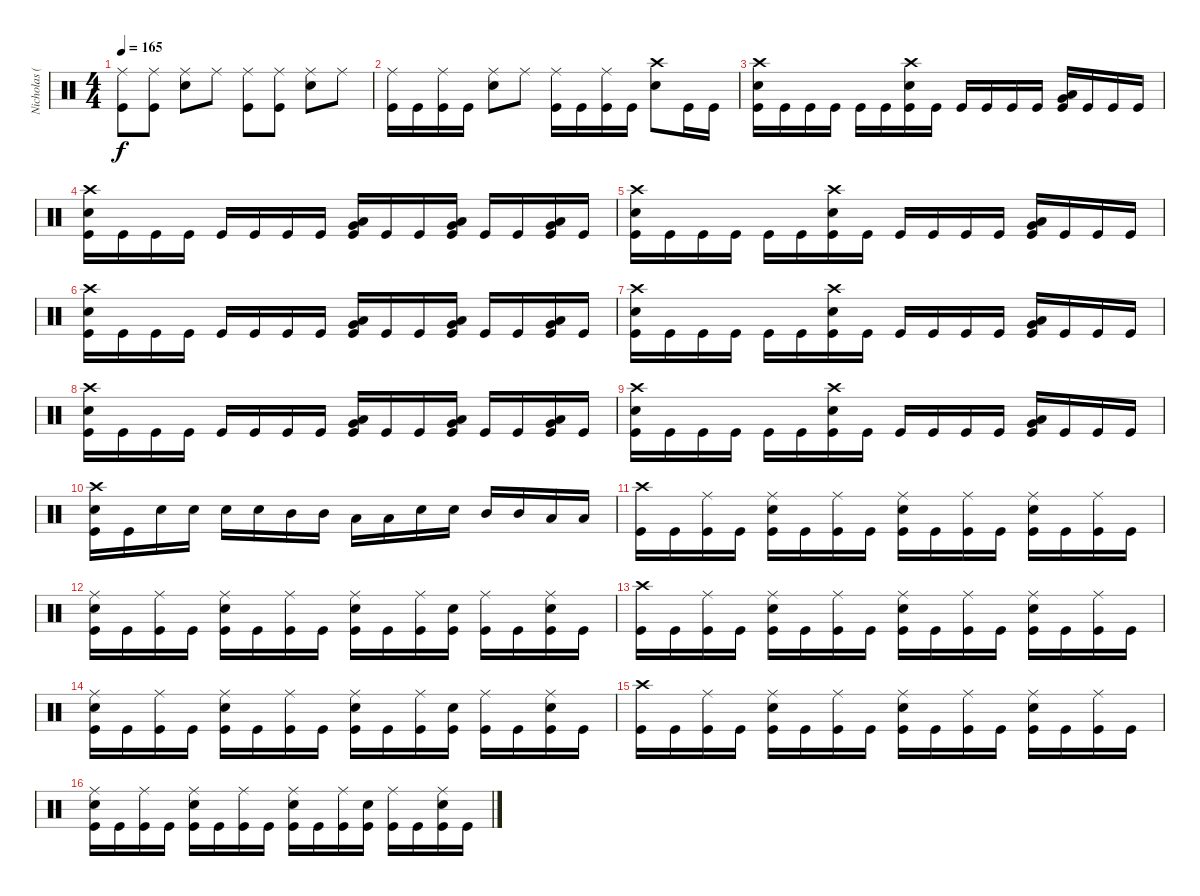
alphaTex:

\track ("Nicholas (Drums)" "Nicholas (") {instrument percussion}
\staff {score}
\articulation defaults
\ts (4 4)
\tempo 165
\clef neutral
\ks c
("Ride (middle)" "Kick (hit)").8{dy f} ("Ride (middle)" "Kick (hit)").8 ("Ride (middle)" "Electric Snare (hit)").8 "Ride (middle)".8 ("Ride (middle)" "Kick (hit)").8 ("Ride (middle)" "Kick (hit)").8 ("Ride (middle)" "Electric Snare (hit)").8 "Ride (middle)".8 |
("Ride (middle)" "Kick (hit)").16 "Kick (hit)".16 ("Ride (middle)" "Kick (hit)").16 "Kick (hit)".16 ("Ride (middle)" "Electric Snare (hit)").8 "Ride (middle)".8 ("Ride (middle)" "Kick (hit)").16 "Kick (hit)".16 ("Ride (middle)" "Kick (hit)").16 "Kick (hit)".16 ("Crash high (hit)" "Electric Snare (hit)").8 "Kick (hit)".16 "Kick (hit)".16 |
("Crash high (hit)" "Electric Snare (hit)" "Kick (hit)").16 "Kick (hit)".16 "Kick (hit)".16 "Kick (hit)".16 "Kick (hit)".16 "Kick (hit)".16 ("Crash high (hit)" "Electric Snare (hit)" "Kick (hit)").16 "Kick (hit)".16 "Kick (hit)".16 "Kick (hit)".16 "Kick (hit)".16 "Kick (hit)".16 ("Low Tom (hit)" "Very Low Tom (hit)" "Kick (hit)").16 "Kick (hit)".16 "Kick (hit)".16 "Kick (hit)".16 |
("Crash high (hit)" "Electric Snare (hit)" "Kick (hit)").16 "Kick (hit)".16 "Kick (hit)".16 "Kick (hit)".16 "Kick (hit)".16 "Kick (hit)".16 "Kick (hit)".16 "Kick (hit)".16 ("Low Tom (hit)" "Very Low Tom (hit)" "Kick (hit)").16 "Kick (hit)".16 "Kick (hit)".16 ("Low Tom (hit)" "Very Low Tom (hit)" "Kick (hit)").16 "Kick (hit)".16 "Kick (hit)".16 ("Low Tom (hit)" "Very Low Tom (hit)" "Kick (hit)").16 "Kick (hit)".16 |
("Crash high (hit)" "Electric Snare (hit)" "Kick (hit)").16 "Kick (hit)".16 "Kick (hit)".16 "Kick (hit)".16 "Kick (hit)".16 "Kick (hit)".16 ("Crash high (hit)" "Electric Snare (hit)" "Kick (hit)").16 "Kick (hit)".16 "Kick (hit)".16 "Kick (hit)".16 "Kick (hit)".16 "Kick (hit)".16 ("Low Tom (hit)" "Very Low Tom (hit)" "Kick (hit)").16 "Kick (hit)".16 "Kick (hit)".16 "Kick (hit)".16 |
("Crash high (hit)" "Electric Snare (hit)" "Kick (hit)").16 "Kick (hit)".16 "Kick (hit)".16 "Kick (hit)".16 "Kick (hit)".16 "Kick (hit)".16 "Kick (hit)".16 "Kick (hit)".16 ("Low Tom (hit)" "Very Low Tom (hit)" "Kick (hit)").16 "Kick (hit)".16 "Kick (hit)".16 ("Low Tom (hit)" "Very Low Tom (hit)" "Kick (hit)").16 "Kick (hit)".16 "Kick (hit)".16 ("Low Tom (hit)" "Very Low Tom (hit)" "Kick (hit)").16 "Kick (hit)".16 |
("Crash high (hit)" "Electric Snare (hit)" "Kick (hit)").16 "Kick (hit)".16 "Kick (hit)".16 "Kick (hit)".16 "Kick (hit)".16 "Kick (hit)".16 ("Crash high (hit)" "Electric Snare (hit)" "Kick (hit)").16 "Kick (hit)".16 "Kick (hit)".16 "Kick (hit)".16 "Kick (hit)".16 "Kick (hit)".16 ("Low Tom (hit)" "Very Low Tom (hit)" "Kick (hit)").16 "Kick (hit)".16 "Kick (hit)".16 "Kick (hit)".16 |
("Crash high (hit)" "Electric Snare (hit)" "Kick (hit)").16 "Kick (hit)".16 "Kick (hit)".16 "Kick (hit)".16 "Kick (hit)".16 "Kick (hit)".16 "Kick (hit)".16 "Kick (hit)".16 ("Low Tom (hit)" "Very Low Tom (hit)" "Kick (hit)").16 "Kick (hit)".16 "Kick (hit)".16 ("Low Tom (hit)" "Very Low Tom (hit)" "Kick (hit)").16 "Kick (hit)".16 "Kick (hit)".16 ("Low Tom (hit)" "Very Low Tom (hit)" "Kick (hit)").16 "Kick (hit)".16 |
("Crash high (hit)" "Electric Snare (hit)" "Kick (hit)").16 "Kick (hit)".16 "Kick (hit)".16 "Kick (hit)".16 "Kick (hit)".16 "Kick (hit)".16 ("Crash high (hit)" "Electric Snare (hit)" "Kick (hit)").16 "Kick (hit)".16 "Kick (hit)".16 "Kick (hit)".16 "Kick (hit)".16 "Kick (hit)".16 ("Low Tom (hit)" "Very Low Tom (hit)" "Kick (hit)").16 "Kick (hit)".16 "Kick (hit)".16 "Kick (hit)".16 |
("Crash high (hit)" "Electric Snare (hit)" "Kick (hit)").16 "Kick (hit)".16 "Electric Snare (hit)".16 "Electric Snare (hit)".16 "Electric Snare (hit)".16 "Electric Snare (hit)".16 "Mid Tom (hit)".16 "Mid Tom (hit)".16 "Low Tom (hit)".16 "Low Tom (hit)".16 "Electric Snare (hit)".16 "Electric Snare (hit)".16 "Mid Tom (hit)".16 "Mid Tom (hit)".16 "Low Tom (hit)".16 "Low Tom (hit)".16 |
("Crash high (hit)" "Kick (hit)").16 "Kick (hit)".16 ("Ride (middle)" "Kick (hit)").16 "Kick (hit)".16 ("Ride (middle)" "Electric Snare (hit)" "Kick (hit)").16 "Kick (hit)".16 ("Ride (middle)" "Kick (hit)").16 "Kick (hit)".16 ("Ride (middle)" "Electric Snare (hit)" "Kick (hit)").16 "Kick (hit)".16 ("Ride (middle)" "Kick (hit)").16 "Kick (hit)".16 ("Ride (middle)" "Electric Snare (hit)" "Kick (hit)").16 "Kick (hit)".16 ("Ride (middle)" "Kick (hit)").16 "Kick (hit)".16 |
("Ride (middle)" "Electric Snare (hit)" "Kick (hit)").16 "Kick (hit)".16 ("Ride (middle)" "Kick (hit)").16 "Kick (hit)".16 ("Ride (middle)" "Electric Snare (hit)" "Kick (hit)").16 "Kick (hit)".16 ("Ride (middle)" "Kick (hit)").16 "Kick (hit)".16 ("Ride (middle)" "Electric Snare (hit)" "Kick (hit)").16 "Kick (hit)".16 ("Ride (middle)" "Kick (hit)").16 ("Electric Snare (hit)" "Kick (hit)").16 ("Ride (middle)" "Kick (hit)").16 "Kick (hit)".16 ("Ride (middle)" "Electric Snare (hit)" "Kick (hit)").16 "Kick (hit)".16 |
("Crash high (hit)" "Kick (hit)").16 "Kick (hit)".16 ("Ride (middle)" "Kick (hit)").16 "Kick (hit)".16 ("Ride (middle)" "Electric Snare (hit)" "Kick (hit)").16 "Kick (hit)".16 ("Ride (middle)" "Kick (hit)").16 "Kick (hit)".16 ("Ride (middle)" "Electric Snare (hit)" "Kick (hit)").16 "Kick (hit)".16 ("Ride (middle)" "Kick (hit)").16 "Kick (hit)".16 ("Ride (middle)" "Electric Snare (hit)" "Kick (hit)").16 "Kick (hit)".16 ("Ride (middle)" "Kick (hit)").16 "Kick (hit)".16 |
("Ride (middle)" "Electric Snare (hit)" "Kick (hit)").16 "Kick (hit)".16 ("Ride (middle)" "Kick (hit)").16 "Kick (hit)".16 ("Ride (middle)" "Electric Snare (hit)" "Kick (hit)").16 "Kick (hit)".16 ("Ride (middle)" "Kick (hit)").16 "Kick (hit)".16 ("Ride (middle)" "Electric Snare (hit)" "Kick (hit)").16 "Kick (hit)".16 ("Ride (middle)" "Kick (hit)").16 ("Electric Snare (hit)" "Kick (hit)").16 ("Ride (middle)" "Kick (hit)").16 "Kick (hit)".16 ("Ride (middle)" "Electric Snare (hit)" "Kick (hit)").16 "Kick (hit)".16 |
("Crash high (hit)" "Kick (hit)").16 "Kick (hit)".16 ("Ride (middle)" "Kick (hit)").16 "Kick (hit)".16 ("Ride (middle)" "Electric Snare (hit)" "Kick (hit)").16 "Kick (hit)".16 ("Ride (middle)" "Kick (hit)").16 "Kick (hit)".16 ("Ride (middle)" "Electric Snare (hit)" "Kick (hit)").16 "Kick (hit)".16 ("Ride (middle)" "Kick (hit)").16 "Kick (hit)".16 ("Ride (middle)" "Electric Snare (hit)" "Kick (hit)").16 "Kick (hit)".16 ("Ride (middle)" "Kick (hit)").16 "Kick (hit)".16 |
("Ride (middle)" "Electric Snare (hit)" "Kick (hit)").16 "Kick (hit)".16 ("Ride (middle)" "Kick (hit)").16 "Kick (hit)".16 ("Ride (middle)" "Electric Snare (hit)" "Kick (hit)").16 "Kick (hit)".16 ("Ride (middle)" "Kick (hit)").16 "Kick (hit)".16 ("Ride (middle)" "Electric Snare (hit)" "Kick (hit)").16 "Kick (hit)".16 ("Ride (middle)" "Kick (hit)").16 ("Electric Snare (hit)" "Kick (hit)").16 ("Ride (middle)" "Kick (hit)").16 "Kick (hit)".16 ("Ride (middle)" "Electric Snare (hit)" "Kick (hit)").16 "Kick (hit)".16
